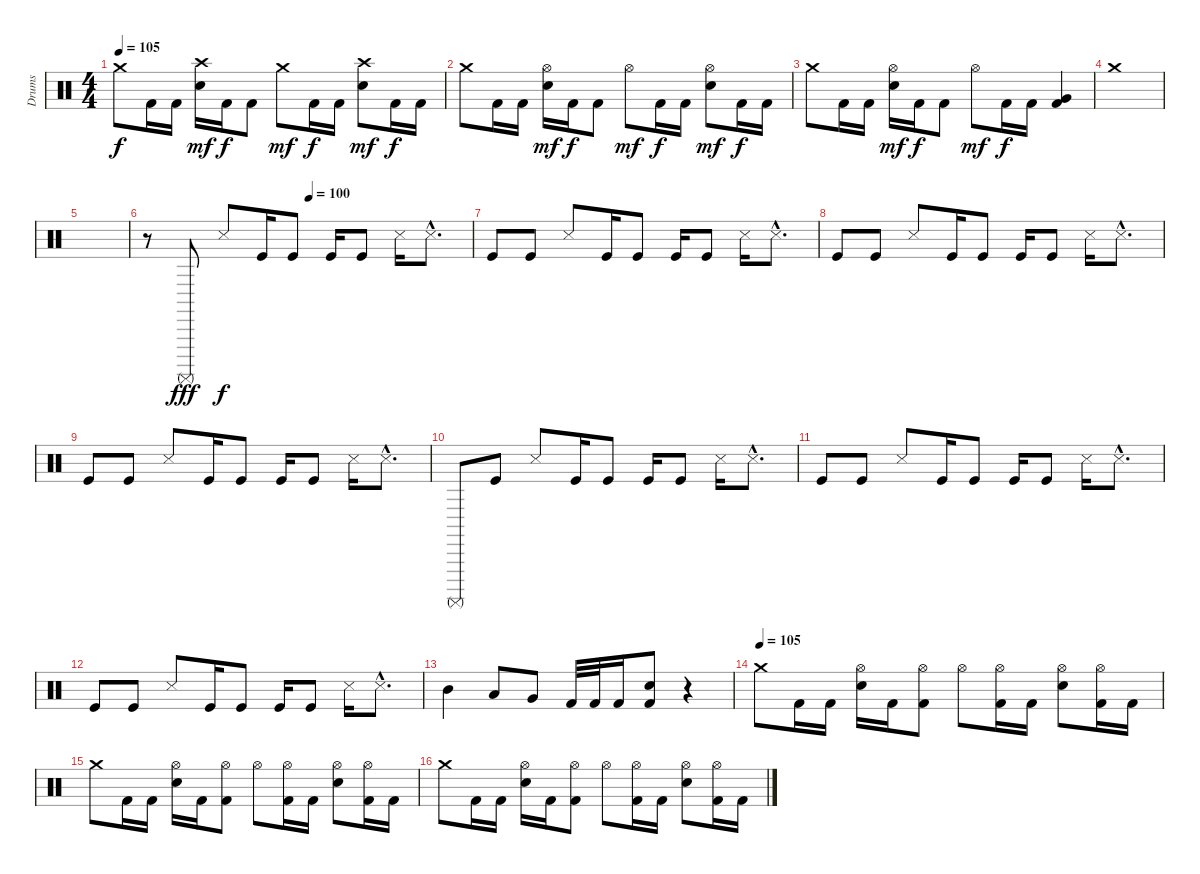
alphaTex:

\track ("Drums" "Drums") {instrument percussion}
\staff {score}
\articulation defaults
\ts (4 4)
\tempo 105
\clef neutral
\ks c "Crash medium (hit)".8{dy f} "Kick (hit) 2".16 "Kick (hit) 2".16
("Crash high (hit)" "Electric Snare (hit)").16{dy mf} "Kick (hit) 2".16{dy f} "Kick (hit) 2".8 "Crash medium (hit)".8{dy mf} "Kick (hit) 2".16{dy f} "Kick (hit) 2".16 ("Crash high (hit)" "Electric Snare (hit)").8{dy mf} "Kick (hit) 2".16{dy f} "Kick (hit) 2".16 |
"Crash medium (hit)".8 "Kick (hit) 2".16 "Kick (hit) 2".16 ("Hi-Hat (open)" "Electric Snare (hit)").16{dy mf} "Kick (hit) 2".16{dy f} "Kick (hit) 2".8 "Hi-Hat (open)".8{dy mf} "Kick (hit) 2".16{dy f} "Kick (hit) 2".16 ("Hi-Hat (open)" "Electric Snare (hit)").8{dy mf} "Kick (hit) 2".16{dy f} "Kick (hit) 2".16 |
"Crash medium (hit)".8 "Kick (hit) 2".16 "Kick (hit) 2".16 ("Hi-Hat (open)" "Electric Snare (hit)").16{dy mf} "Kick (hit) 2".16{dy f} "Kick (hit) 2".8 "Hi-Hat (open)".8{dy mf} "Kick (hit) 2".16{dy f} "Kick (hit) 2".16 ("Very Low Tom (hit)" "Kick (hit) 2").4 |
"Crash medium (hit)".1 |
|
\tempo (100 0.5)
r.8 "Surdo (mute)".8{dy fff} "Snare (side stick) 3".8{dy f} "Kick (hit)".16 "Kick (hit)".8 "Kick (hit)".16 "Kick (hit)".8 "Snare (side stick) 3".16 "Snare (side stick) 3"{hac}.8{d} |
"Kick (hit)".8 "Kick (hit)".8 "Snare (side stick) 3".8 "Kick (hit)".16 "Kick (hit)".8 "Kick (hit)".16 "Kick (hit)".8 "Snare (side stick) 3".16 "Snare (side stick) 3"{hac}.8{d} |
"Kick (hit)".8 "Kick (hit)".8 "Snare (side stick) 3".8 "Kick (hit)".16 "Kick (hit)".8 "Kick (hit)".16 "Kick (hit)".8 "Snare (side stick) 3".16 "Snare (side stick) 3"{hac}.8{d} |
"Kick (hit)".8 "Kick (hit)".8 "Snare (side stick) 3".8 "Kick (hit)".16 "Kick (hit)".8 "Kick (hit)".16 "Kick (hit)".8 "Snare (side stick) 3".16 "Snare (side stick) 3"{hac}.8{d} |
"Surdo (mute)".8 "Kick (hit)".8 "Snare (side stick) 3".8 "Kick (hit)".16 "Kick (hit)".8 "Kick (hit)".16 "Kick (hit)".8 "Snare (side stick) 3".16 "Snare (side stick) 3"{hac}.8{d} |
"Kick (hit)".8 "Kick (hit)".8 "Snare (side stick) 3".8 "Kick (hit)".16 "Kick (hit)".8 "Kick (hit)".16 "Kick (hit)".8 "Snare (side stick) 3".16 "Snare (side stick) 3"{hac}.8{d} |
"Kick (hit)".8 "Kick (hit)".8 "Snare (side stick) 3".8 "Kick (hit)".16 "Kick (hit)".8 "Kick (hit)".16 "Kick (hit)".8 "Snare (side stick) 3".16 "Snare (side stick) 3"{hac}.8{d} |
"Mid Tom (hit)".4 "Low Tom (hit)".8 "Very Low Tom (hit)".8 "Kick (hit) 2".32 "Kick (hit) 2".32 "Kick (hit) 2".16 ("Electric Snare (hit)" "Kick (hit) 2").8 r.4 |
\tempo (105)
"Crash medium (hit)".8 "Kick (hit) 2".16 "Kick (hit) 2".16 ("Hi-Hat (open)" "Electric Snare (hit)").16 "Kick (hit) 2".16 ("Hi-Hat (open)" "Kick (hit) 2").8 "Hi-Hat (open)".8 ("Hi-Hat (open)" "Kick (hit) 2").16 "Kick (hit) 2".16 ("Hi-Hat (open)" "Electric Snare (hit)").8 ("Hi-Hat (open)" "Kick (hit) 2").16 "Kick (hit) 2".16 |
"Crash medium (hit)".8 "Kick (hit) 2".16 "Kick (hit) 2".16 ("Hi-Hat (open)" "Electric Snare (hit)").16 "Kick (hit) 2".16 ("Hi-Hat (open)" "Kick (hit) 2").8 "Hi-Hat (open)".8 ("Hi-Hat (open)" "Kick (hit) 2").16 "Kick (hit) 2".16 ("Hi-Hat (open)" "Electric Snare (hit)").8 ("Hi-Hat (open)" "Kick (hit) 2").16 "Kick (hit) 2".16 |
"Crash medium (hit)".8 "Kick (hit) 2".16 "Kick (hit) 2".16 ("Hi-Hat (open)" "Electric Snare (hit)").16 "Kick (hit) 2".16 ("Hi-Hat (open)" "Kick (hit) 2").8 "Hi-Hat (open)".8 ("Hi-Hat (open)" "Kick (hit) 2").16 "Kick (hit) 2".16 ("Hi-Hat (open)" "Electric Snare (hit)").8 ("Hi-Hat (open)" "Kick (hit) 2").16 "Kick (hit) 2".16
